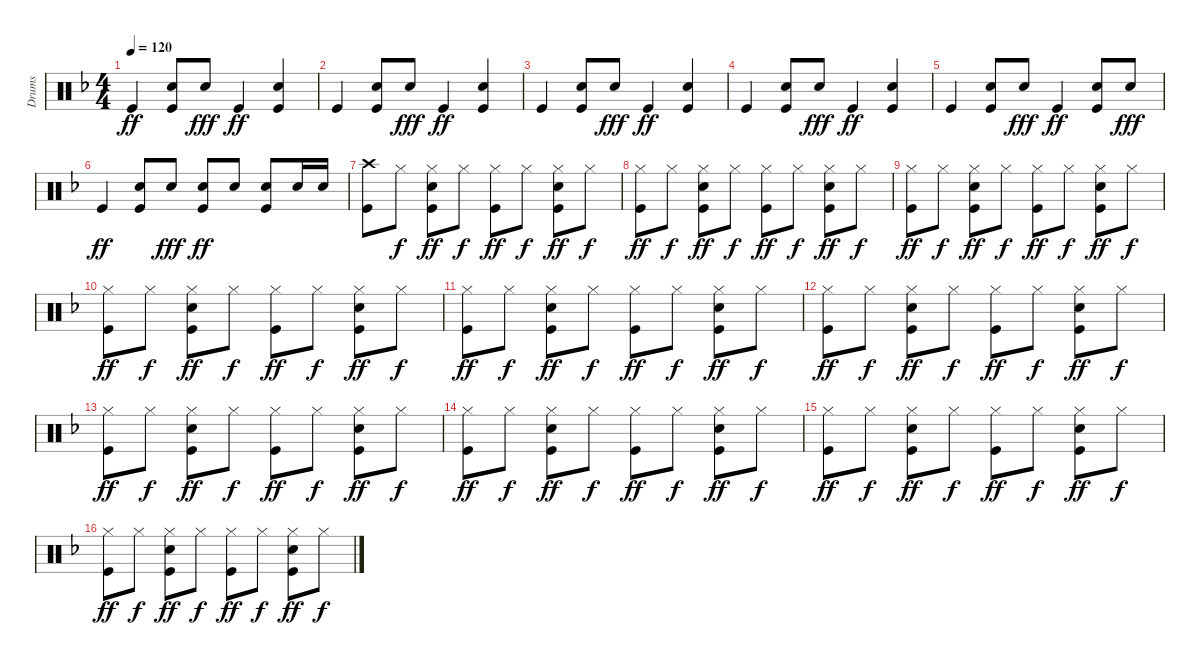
\track ("Drums" "Drums") {instrument percussion}
\staff {score}
\articulation defaults
\ts (4 4)
\tempo 120
\clef neutral
\ks f "Kick (hit)".4{dy ff}
("Hand Clap (hit)" "Kick (hit)").8 "Hand Clap (hit)".8{dy fff} "Kick (hit)".4{dy ff} ("Hand Clap (hit)" "Kick (hit)").4 |
"Kick (hit)".4 ("Hand Clap (hit)" "Kick (hit)").8 "Hand Clap (hit)".8{dy fff} "Kick (hit)".4{dy ff} ("Hand Clap (hit)" "Kick (hit)").4 |
"Kick (hit)".4 ("Hand Clap (hit)" "Kick (hit)").8 "Hand Clap (hit)".8{dy fff} "Kick (hit)".4{dy ff} ("Hand Clap (hit)" "Kick (hit)").4 |
"Kick (hit)".4 ("Hand Clap (hit)" "Kick (hit)").8 "Hand Clap (hit)".8{dy fff} "Kick (hit)".4{dy ff} ("Hand Clap (hit)" "Kick (hit)").4 |
"Kick (hit)".4 ("Hand Clap (hit)" "Kick (hit)").8 "Hand Clap (hit)".8{dy fff} "Kick (hit)".4{dy ff} ("Hand Clap (hit)" "Kick (hit)").8 "Hand Clap (hit)".8{dy fff} |
"Kick (hit)".4{dy ff} ("Hand Clap (hit)" "Kick (hit)").8 "Hand Clap (hit)".8{dy fff} ("Snare (hit) 2" "Kick (hit)").8{dy ff} "Snare (hit) 2".8 ("Snare (hit) 2" "Kick (hit)").8 "Snare (hit) 2".16 "Snare (hit) 2".16 |
("Crash high (hit)" "Kick (hit)").8 "Hi-Hat (closed)".8{dy f} ("Hi-Hat (closed)" "Snare (hit) 2" "Kick (hit)").8{dy ff} "Hi-Hat (closed)".8{dy f} ("Hi-Hat (closed)" "Kick (hit)").8{dy ff} "Hi-Hat (closed)".8{dy f} ("Hi-Hat (closed)" "Snare (hit) 2" "Kick (hit)").8{dy ff} "Hi-Hat (closed)".8{dy f} |
("Hi-Hat (closed)" "Kick (hit)").8{dy ff} "Hi-Hat (closed)".8{dy f} ("Hi-Hat (closed)" "Snare (hit) 2" "Kick (hit)").8{dy ff} "Hi-Hat (closed)".8{dy f} ("Hi-Hat (closed)" "Kick (hit)").8{dy ff} "Hi-Hat (closed)".8{dy f} ("Hi-Hat (closed)" "Snare (hit) 2" "Kick (hit)").8{dy ff} "Hi-Hat (closed)".8{dy f} |
("Hi-Hat (closed)" "Kick (hit)").8{dy ff} "Hi-Hat (closed)".8{dy f} ("Hi-Hat (closed)" "Snare (hit) 2" "Kick (hit)").8{dy ff} "Hi-Hat (closed)".8{dy f} ("Hi-Hat (closed)" "Kick (hit)").8{dy ff} "Hi-Hat (closed)".8{dy f} ("Hi-Hat (closed)" "Snare (hit) 2" "Kick (hit)").8{dy ff} "Hi-Hat (closed)".8{dy f} |
("Hi-Hat (closed)" "Kick (hit)").8{dy ff} "Hi-Hat (closed)".8{dy f} ("Hi-Hat (closed)" "Snare (hit) 2" "Kick (hit)").8{dy ff} "Hi-Hat (closed)".8{dy f} ("Hi-Hat (closed)" "Kick (hit)").8{dy ff} "Hi-Hat (closed)".8{dy f} ("Hi-Hat (closed)" "Snare (hit) 2" "Kick (hit)").8{dy ff} "Hi-Hat (closed)".8{dy f} |
("Hi-Hat (closed)" "Kick (hit)").8{dy ff} "Hi-Hat (closed)".8{dy f} ("Hi-Hat (closed)" "Snare (hit) 2" "Kick (hit)").8{dy ff} "Hi-Hat (closed)".8{dy f} ("Hi-Hat (closed)" "Kick (hit)").8{dy ff} "Hi-Hat (closed)".8{dy f} ("Hi-Hat (closed)" "Snare (hit) 2" "Kick (hit)").8{dy ff} "Hi-Hat (closed)".8{dy f} |
("Hi-Hat (closed)" "Kick (hit)").8{dy ff} "Hi-Hat (closed)".8{dy f} ("Hi-Hat (closed)" "Snare (hit) 2" "Kick (hit)").8{dy ff} "Hi-Hat (closed)".8{dy f} ("Hi-Hat (closed)" "Kick (hit)").8{dy ff} "Hi-Hat (closed)".8{dy f} ("Hi-Hat (closed)" "Snare (hit) 2" "Kick (hit)").8{dy ff} "Hi-Hat (closed)".8{dy f} |
("Hi-Hat (closed)" "Kick (hit)").8{dy ff} "Hi-Hat (closed)".8{dy f} ("Hi-Hat (closed)" "Snare (hit) 2" "Kick (hit)").8{dy ff} "Hi-Hat (closed)".8{dy f} ("Hi-Hat (closed)" "Kick (hit)").8{dy ff} "Hi-Hat (closed)".8{dy f} ("Hi-Hat (closed)" "Snare (hit) 2" "Kick (hit)").8{dy ff} "Hi-Hat (closed)".8{dy f} |
("Hi-Hat (closed)" "Kick (hit)").8{dy ff} "Hi-Hat (closed)".8{dy f} ("Hi-Hat (closed)" "Snare (hit) 2" "Kick (hit)").8{dy ff} "Hi-Hat (closed)".8{dy f} ("Hi-Hat (closed)" "Kick (hit)").8{dy ff} "Hi-Hat (closed)".8{dy f} ("Hi-Hat (closed)" "Snare (hit) 2" "Kick (hit)").8{dy ff} "Hi-Hat (closed)".8{dy f} |
("Hi-Hat (closed)" "Kick (hit)").8{dy ff} "Hi-Hat (closed)".8{dy f} ("Hi-Hat (closed)" "Snare (hit) 2" "Kick (hit)").8{dy ff} "Hi-Hat (closed)".8{dy f} ("Hi-Hat (closed)" "Kick (hit)").8{dy ff} "Hi-Hat (closed)".8{dy f} ("Hi-Hat (closed)" "Snare (hit) 2" "Kick (hit)").8{dy ff} "Hi-Hat (closed)".8{dy f} |
("Hi-Hat (closed)" "Kick (hit)").8{dy ff} "Hi-Hat (closed)".8{dy f} ("Hi-Hat (closed)" "Snare (hit) 2" "Kick (hit)").8{dy ff} "Hi-Hat (closed)".8{dy f} ("Hi-Hat (closed)" "Kick (hit)").8{dy ff} "Hi-Hat (closed)".8{dy f} ("Hi-Hat (closed)" "Snare (hit) 2" "Kick (hit)").8{dy ff} "Hi-Hat (closed)".8{dy f}
